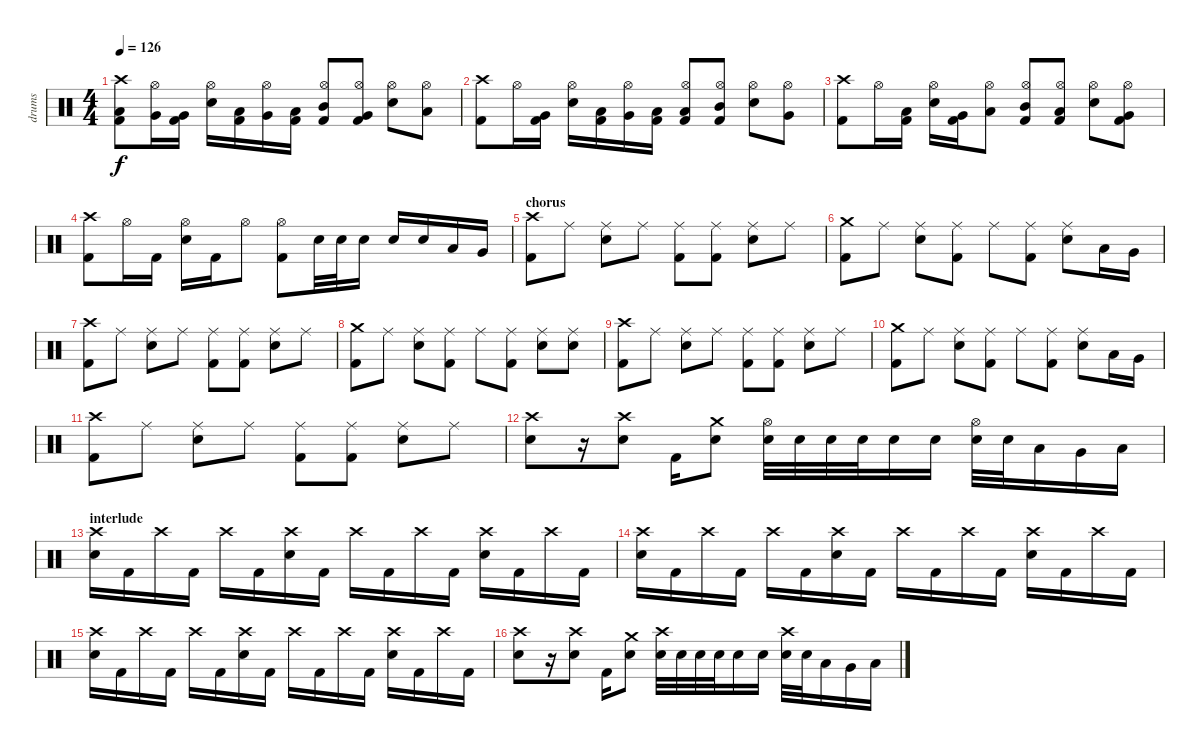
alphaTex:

\track ("drums" "drums") {instrument percussion}
\staff {score}
\articulation defaults
\ts (4 4)
\tempo 126
\clef neutral
\ks c
("Crash high (hit)" "Low Floor Tom (hit)" "Kick (hit) 2").8{dy f} ("Hi-Hat (open)" "Very Low Tom (hit)").16 ("Very Low Tom (hit)" "Kick (hit) 2").16 ("Hi-Hat (open)" "Electric Snare (hit)").16 ("Low Tom (hit)" "Kick (hit) 2").16 ("Hi-Hat (open)" "Very Low Tom (hit)").16 ("Low Floor Tom (hit)" "Kick (hit) 2").16 ("Hi-Hat (open)" "Mid Tom (hit)" "Kick (hit) 2").8 ("Hi-Hat (open)" "Very Low Tom (hit)" "Kick (hit) 2").8 ("Hi-Hat (open)" "Electric Snare (hit)").8 ("Hi-Hat (open)" "Low Floor Tom (hit)").8 |
("Crash high (hit)" "Kick (hit) 2").8 "Hi-Hat (open)".16 ("Very Low Tom (hit)" "Kick (hit) 2").16 ("Hi-Hat (open)" "Electric Snare (hit)").16 ("Low Tom (hit)" "Kick (hit) 2").16 ("Hi-Hat (open)" "Very Low Tom (hit)").16 ("Low Floor Tom (hit)" "Kick (hit) 2").16 ("Hi-Hat (open)" "Low Tom (hit)" "Kick (hit) 2").8 ("Hi-Hat (open)" "Mid Tom (hit)" "Kick (hit) 2").8 ("Hi-Hat (open)" "Electric Snare (hit)").8 ("Hi-Hat (open)" "Very Low Tom (hit)").8 |
("Crash high (hit)" "Kick (hit) 2").8 "Hi-Hat (open)".16 ("Low Floor Tom (hit)" "Kick (hit) 2").16 ("Hi-Hat (open)" "Electric Snare (hit)").16 ("Very Low Tom (hit)" "Kick (hit) 2").16 ("Hi-Hat (open)" "Low Tom (hit)").8 ("Hi-Hat (open)" "Mid Tom (hit)" "Kick (hit) 2").8 ("Hi-Hat (open)" "Low Tom (hit)" "Kick (hit) 2").8 ("Hi-Hat (open)" "Electric Snare (hit)").8 ("Hi-Hat (open)" "Very Low Tom (hit)" "Kick (hit) 2").8 |
("Crash high (hit)" "Kick (hit) 2").8 "Hi-Hat (open)".16 "Kick (hit) 2".16 ("Hi-Hat (open)" "Electric Snare (hit)").16 "Kick (hit) 2".16 "Hi-Hat (open)".8 ("Hi-Hat (open)" "Kick (hit) 2").8 "Electric Snare (hit)".32 "Electric Snare (hit)".32 "Electric Snare (hit)".16 "Electric Snare (hit)".16 "Electric Snare (hit)".16 "Low Tom (hit)".16 "Very Low Tom (hit)".16 |
\section ("" "chorus")
("Crash high (hit)" "Kick (hit) 2").8 "Ride (middle)".8 ("Ride (middle)" "Electric Snare (hit)").8 "Ride (middle)".8 ("Ride (middle)" "Kick (hit) 2").8 ("Ride (middle)" "Kick (hit) 2").8 ("Ride (middle)" "Electric Snare (hit)").8 "Ride (middle)".8 |
("Crash medium (hit)" "Kick (hit) 2").8 "Ride (middle)".8 ("Ride (middle)" "Electric Snare (hit)").8 ("Ride (middle)" "Kick (hit) 2").8 "Ride (middle)".8 ("Ride (middle)" "Kick (hit) 2").8 ("Ride (middle)" "Electric Snare (hit)").8 "Low Tom (hit)".16 "Very Low Tom (hit)".16 |
("Crash high (hit)" "Kick (hit) 2").8 "Ride (middle)".8 ("Ride (middle)" "Electric Snare (hit)").8 "Ride (middle)".8 ("Ride (middle)" "Kick (hit) 2").8 ("Ride (middle)" "Kick (hit) 2").8 ("Ride (middle)" "Electric Snare (hit)").8 "Ride (middle)".8 |
("Crash medium (hit)" "Kick (hit) 2").8 "Ride (middle)".8 ("Ride (middle)" "Electric Snare (hit)").8 ("Ride (middle)" "Kick (hit) 2").8 "Ride (middle)".8 ("Ride (middle)" "Kick (hit) 2").8 ("Ride (middle)" "Electric Snare (hit)").8 ("Ride (middle)" "Electric Snare (hit)").8 |
("Crash high (hit)" "Kick (hit) 2").8 "Ride (middle)".8 ("Ride (middle)" "Electric Snare (hit)").8 "Ride (middle)".8 ("Ride (middle)" "Kick (hit) 2").8 ("Ride (middle)" "Kick (hit) 2").8 ("Ride (middle)" "Electric Snare (hit)").8 "Ride (middle)".8 |
("Crash medium (hit)" "Kick (hit) 2").8 "Ride (middle)".8 ("Ride (middle)" "Electric Snare (hit)").8 ("Ride (middle)" "Kick (hit) 2").8 "Ride (middle)".8 ("Ride (middle)" "Kick (hit) 2").8 ("Ride (middle)" "Electric Snare (hit)").8 "Low Tom (hit)".16 "Very Low Tom (hit)".16 |
("Crash high (hit)" "Kick (hit) 2").8 "Ride (middle)".8 ("Ride (middle)" "Electric Snare (hit)").8 "Ride (middle)".8 ("Ride (middle)" "Kick (hit) 2").8 ("Ride (middle)" "Kick (hit) 2").8 ("Ride (middle)" "Electric Snare (hit)").8 "Ride (middle)".8 |
("Crash high (hit)" "Electric Snare (hit)").8 r.16 ("Crash high (hit)" "Electric Snare (hit)").8 "Kick (hit) 2".16 ("Crash medium (hit)" "Electric Snare (hit)").8 ("Hi-Hat (open)" "Electric Snare (hit)").32 "Electric Snare (hit)".32 "Electric Snare (hit)".32 "Electric Snare (hit)".32 "Electric Snare (hit)".16 "Electric Snare (hit)".16 ("Hi-Hat (open)" "Electric Snare (hit)").32 "Electric Snare (hit)".32 "Low Tom (hit)".16 "Very Low Tom (hit)".16 "Low Floor Tom (hit)".16 |
\section ("" "interlude")
("Crash high (hit)" "Electric Snare (hit)").16 "Kick (hit) 2".16 "Crash high (hit)".16 "Kick (hit) 2".16 "Crash high (hit)".16 "Kick (hit) 2".16 ("Crash high (hit)" "Electric Snare (hit)").16 "Kick (hit) 2".16 "Crash high (hit)".16 "Kick (hit) 2".16 "Crash high (hit)".16 "Kick (hit) 2".16 ("Crash high (hit)" "Electric Snare (hit)").16 "Kick (hit) 2".16 "Crash high (hit)".16 "Kick (hit) 2".16 |
("Crash high (hit)" "Electric Snare (hit)").16 "Kick (hit) 2".16 "Crash high (hit)".16 "Kick (hit) 2".16 "Crash high (hit)".16 "Kick (hit) 2".16 ("Crash high (hit)" "Electric Snare (hit)").16 "Kick (hit) 2".16 "Crash high (hit)".16 "Kick (hit) 2".16 "Crash high (hit)".16 "Kick (hit) 2".16 ("Crash high (hit)" "Electric Snare (hit)").16 "Kick (hit) 2".16 "Crash high (hit)".16 "Kick (hit) 2".16 |
("Crash high (hit)" "Electric Snare (hit)").16 "Kick (hit) 2".16 "Crash high (hit)".16 "Kick (hit) 2".16 "Crash high (hit)".16 "Kick (hit) 2".16 ("Crash high (hit)" "Electric Snare (hit)").16 "Kick (hit) 2".16 "Crash high (hit)".16 "Kick (hit) 2".16 "Crash high (hit)".16 "Kick (hit) 2".16 ("Crash high (hit)" "Electric Snare (hit)").16 "Kick (hit) 2".16 "Crash high (hit)".16 "Kick (hit) 2".16 |
("Crash high (hit)" "Electric Snare (hit)").8 r.16 ("Crash high (hit)" "Electric Snare (hit)").8 "Kick (hit) 2".16 ("Crash medium (hit)" "Electric Snare (hit)").8 ("Crash high (hit)" "Electric Snare (hit)").32 "Electric Snare (hit)".32 "Electric Snare (hit)".32 "Electric Snare (hit)".32 "Electric Snare (hit)".16 "Electric Snare (hit)".16 ("Crash high (hit)" "Electric Snare (hit)").32 "Electric Snare (hit)".32 "Low Tom (hit)".16 "Very Low Tom (hit)".16 "Low Floor Tom (hit)".16
